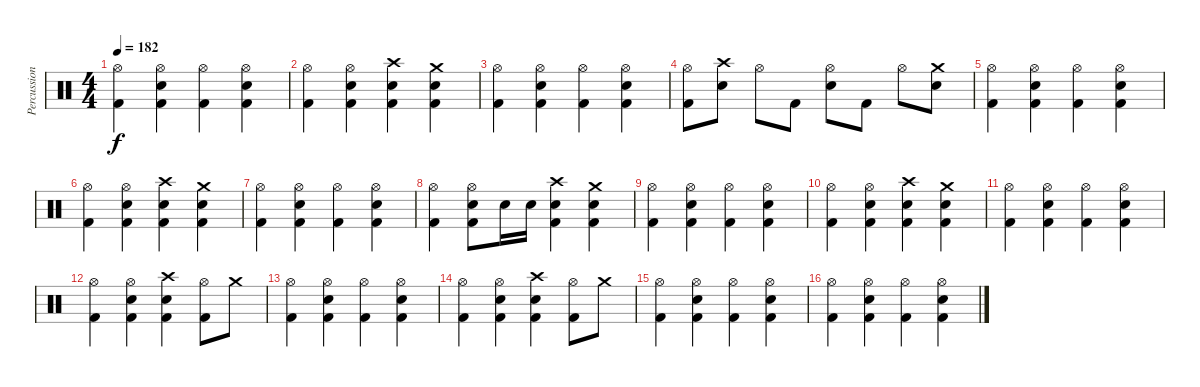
\track ("Percussion" "Percussion") {instrument percussion}
\staff {score}
\articulation defaults
\ts (4 4)
\tempo 182
\clef neutral
\ks c
("Hi-Hat (open)" "Kick (hit) 2").4{dy f} ("Hi-Hat (open)" "Electric Snare (hit)" "Kick (hit) 2").4 ("Hi-Hat (open)" "Kick (hit) 2").4 ("Hi-Hat (open)" "Electric Snare (hit)" "Kick (hit) 2").4 |
("Hi-Hat (open)" "Kick (hit) 2").4 ("Hi-Hat (open)" "Electric Snare (hit)" "Kick (hit) 2").4 ("Crash high (hit)" "Electric Snare (hit)" "Kick (hit) 2").4 ("Crash medium (hit)" "Electric Snare (hit)" "Kick (hit) 2").4 |
("Hi-Hat (open)" "Kick (hit) 2").4 ("Hi-Hat (open)" "Electric Snare (hit)" "Kick (hit) 2").4 ("Hi-Hat (open)" "Kick (hit) 2").4 ("Hi-Hat (open)" "Electric Snare (hit)" "Kick (hit) 2").4 |
("Hi-Hat (open)" "Kick (hit) 2").8 ("Crash high (hit)" "Electric Snare (hit)").8 "Hi-Hat (open)".8 "Kick (hit) 2".8 ("Hi-Hat (open)" "Electric Snare (hit)").8 "Kick (hit) 2".8 "Hi-Hat (open)".8 ("Crash medium (hit)" "Electric Snare (hit)").8 |
("Hi-Hat (open)" "Kick (hit) 2").4 ("Hi-Hat (open)" "Electric Snare (hit)" "Kick (hit) 2").4 ("Hi-Hat (open)" "Kick (hit) 2").4 ("Hi-Hat (open)" "Electric Snare (hit)" "Kick (hit) 2").4 |
("Hi-Hat (open)" "Kick (hit) 2").4 ("Hi-Hat (open)" "Electric Snare (hit)" "Kick (hit) 2").4 ("Crash high (hit)" "Electric Snare (hit)" "Kick (hit) 2").4 ("Crash medium (hit)" "Electric Snare (hit)" "Kick (hit) 2").4 |
("Hi-Hat (open)" "Kick (hit) 2").4 ("Hi-Hat (open)" "Electric Snare (hit)" "Kick (hit) 2").4 ("Hi-Hat (open)" "Kick (hit) 2").4 ("Hi-Hat (open)" "Electric Snare (hit)" "Kick (hit) 2").4 |
("Hi-Hat (open)" "Kick (hit) 2").4 ("Hi-Hat (open)" "Electric Snare (hit)" "Kick (hit) 2").8 "Electric Snare (hit)".16 "Electric Snare (hit)".16 ("Crash high (hit)" "Electric Snare (hit)" "Kick (hit) 2").4 ("Crash medium (hit)" "Electric Snare (hit)" "Kick (hit) 2").4 |
("Hi-Hat (open)" "Kick (hit) 2").4 ("Hi-Hat (open)" "Electric Snare (hit)" "Kick (hit) 2").4 ("Hi-Hat (open)" "Kick (hit) 2").4 ("Hi-Hat (open)" "Electric Snare (hit)" "Kick (hit) 2").4 |
("Hi-Hat (open)" "Kick (hit) 2").4 ("Hi-Hat (open)" "Electric Snare (hit)" "Kick (hit) 2").4 ("Crash high (hit)" "Electric Snare (hit)" "Kick (hit) 2").4 ("Crash medium (hit)" "Electric Snare (hit)" "Kick (hit) 2").4 |
("Hi-Hat (open)" "Kick (hit) 2").4 ("Hi-Hat (open)" "Electric Snare (hit)" "Kick (hit) 2").4 ("Hi-Hat (open)" "Kick (hit) 2").4 ("Hi-Hat (open)" "Electric Snare (hit)" "Kick (hit) 2").4 |
("Hi-Hat (open)" "Kick (hit) 2").4 ("Hi-Hat (open)" "Electric Snare (hit)" "Kick (hit) 2").4 ("Crash high (hit)" "Electric Snare (hit)" "Kick (hit) 2").4 ("Hi-Hat (open)" "Kick (hit) 2").8 "Crash medium (hit)".8 |
("Hi-Hat (open)" "Kick (hit) 2").4 ("Hi-Hat (open)" "Electric Snare (hit)" "Kick (hit) 2").4 ("Hi-Hat (open)" "Kick (hit) 2").4 ("Hi-Hat (open)" "Electric Snare (hit)" "Kick (hit) 2").4 |
("Hi-Hat (open)" "Kick (hit) 2").4 ("Hi-Hat (open)" "Electric Snare (hit)" "Kick (hit) 2").4 ("Crash high (hit)" "Electric Snare (hit)" "Kick (hit) 2").4 ("Hi-Hat (open)" "Kick (hit) 2").8 "Crash medium (hit)".8 |
("Hi-Hat (open)" "Kick (hit) 2").4 ("Hi-Hat (open)" "Electric Snare (hit)" "Kick (hit) 2").4 ("Hi-Hat (open)" "Kick (hit) 2").4 ("Hi-Hat (open)" "Electric Snare (hit)" "Kick (hit) 2").4 |
("Hi-Hat (open)" "Kick (hit) 2").4 ("Hi-Hat (open)" "Electric Snare (hit)" "Kick (hit) 2").4 ("Hi-Hat (open)" "Kick (hit) 2").4 ("Hi-Hat (open)" "Electric Snare (hit)" "Kick (hit) 2").4
